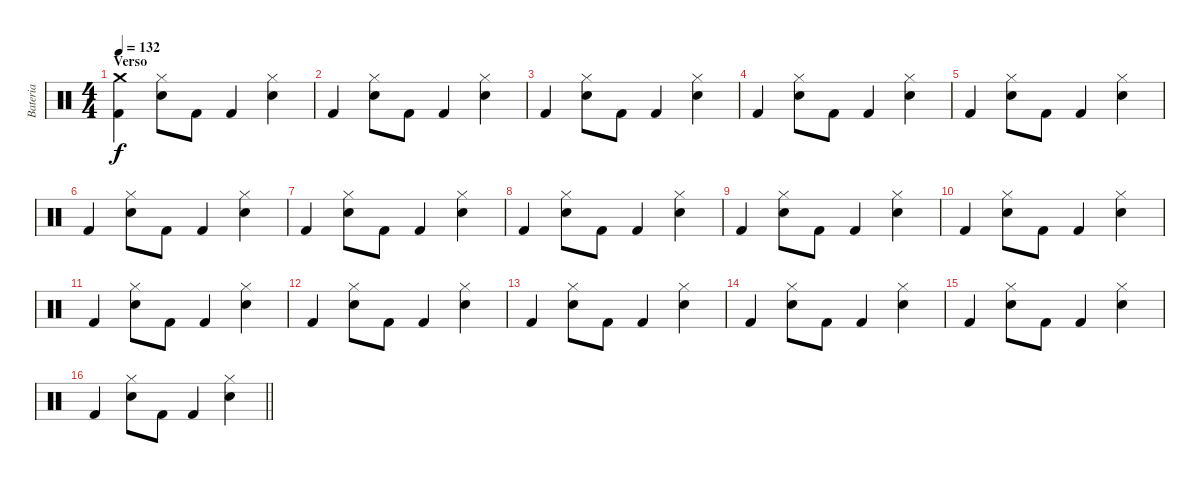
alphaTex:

\track ("Bateria" "Bateria") {instrument percussion}
\staff {score}
\articulation defaults
\ts (4 4)
\section ("" "Verso")
\tempo 132
\clef neutral
\ks c
("Kick (hit) 2" "Crash medium (hit)").4{dy f} ("Electric Snare (hit)" "Hi-Hat (closed)").8 "Kick (hit) 2".8 "Kick (hit) 2".4 ("Electric Snare (hit)" "Hi-Hat (closed)").4 |
"Kick (hit) 2".4 ("Electric Snare (hit)" "Hi-Hat (closed)").8 "Kick (hit) 2".8 "Kick (hit) 2".4 ("Electric Snare (hit)" "Hi-Hat (closed)").4 |
"Kick (hit) 2".4 ("Electric Snare (hit)" "Hi-Hat (closed)").8 "Kick (hit) 2".8 "Kick (hit) 2".4 ("Electric Snare (hit)" "Hi-Hat (closed)").4 |
"Kick (hit) 2".4 ("Electric Snare (hit)" "Hi-Hat (closed)").8 "Kick (hit) 2".8 "Kick (hit) 2".4 ("Electric Snare (hit)" "Hi-Hat (closed)").4 |
"Kick (hit) 2".4 ("Electric Snare (hit)" "Hi-Hat (closed)").8 "Kick (hit) 2".8 "Kick (hit) 2".4 ("Electric Snare (hit)" "Hi-Hat (closed)").4 |
"Kick (hit) 2".4 ("Electric Snare (hit)" "Hi-Hat (closed)").8 "Kick (hit) 2".8 "Kick (hit) 2".4 ("Electric Snare (hit)" "Hi-Hat (closed)").4 |
"Kick (hit) 2".4 ("Electric Snare (hit)" "Hi-Hat (closed)").8 "Kick (hit) 2".8 "Kick (hit) 2".4 ("Electric Snare (hit)" "Hi-Hat (closed)").4 |
"Kick (hit) 2".4 ("Electric Snare (hit)" "Hi-Hat (closed)").8 "Kick (hit) 2".8 "Kick (hit) 2".4 ("Electric Snare (hit)" "Hi-Hat (closed)").4 |
"Kick (hit) 2".4 ("Electric Snare (hit)" "Hi-Hat (closed)").8 "Kick (hit) 2".8 "Kick (hit) 2".4 ("Electric Snare (hit)" "Hi-Hat (closed)").4 |
"Kick (hit) 2".4 ("Electric Snare (hit)" "Hi-Hat (closed)").8 "Kick (hit) 2".8 "Kick (hit) 2".4 ("Electric Snare (hit)" "Hi-Hat (closed)").4 |
"Kick (hit) 2".4 ("Electric Snare (hit)" "Hi-Hat (closed)").8 "Kick (hit) 2".8 "Kick (hit) 2".4 ("Electric Snare (hit)" "Hi-Hat (closed)").4 |
"Kick (hit) 2".4 ("Electric Snare (hit)" "Hi-Hat (closed)").8 "Kick (hit) 2".8 "Kick (hit) 2".4 ("Electric Snare (hit)" "Hi-Hat (closed)").4 |
"Kick (hit) 2".4 ("Electric Snare (hit)" "Hi-Hat (closed)").8 "Kick (hit) 2".8 "Kick (hit) 2".4 ("Electric Snare (hit)" "Hi-Hat (closed)").4 |
"Kick (hit) 2".4 ("Electric Snare (hit)" "Hi-Hat (closed)").8 "Kick (hit) 2".8 "Kick (hit) 2".4 ("Electric Snare (hit)" "Hi-Hat (closed)").4 |
"Kick (hit) 2".4 ("Electric Snare (hit)" "Hi-Hat (closed)").8 "Kick (hit) 2".8 "Kick (hit) 2".4 ("Electric Snare (hit)" "Hi-Hat (closed)").4 |
\barLineRight lightlight "Kick (hit) 2".4
("Electric Snare (hit)" "Hi-Hat (closed)").8 "Kick (hit) 2".8 "Kick (hit) 2".4 ("Electric Snare (hit)" "Hi-Hat (closed)").4
